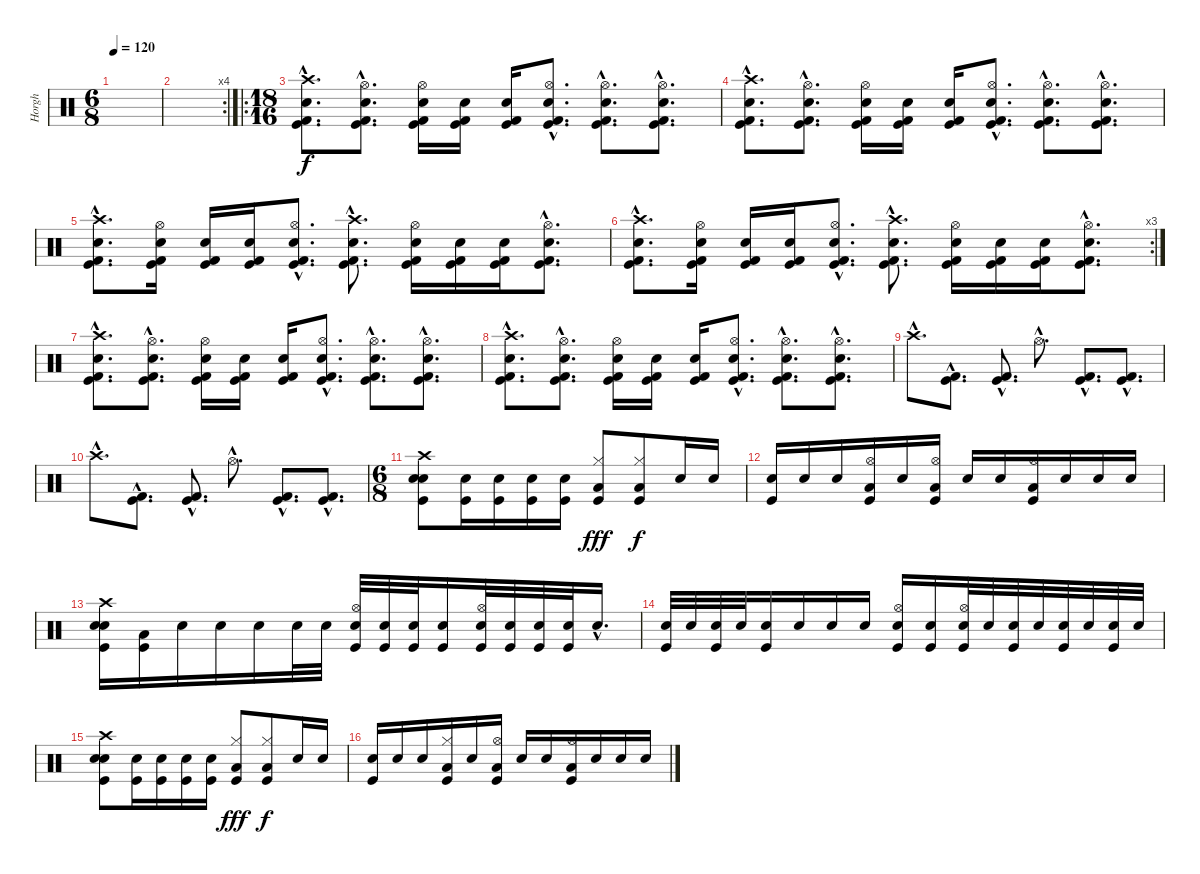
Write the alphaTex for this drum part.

\track ("Horgh" "Horgh") {instrument percussion}
\staff {score}
\articulation defaults
\ts (6 8)
\tempo 120
\clef neutral
\ks c
|
\rc 4
|
\ro
\ts (18 16)
("Crash high (hit)"{hac} "Snare (hit) 2"{hac} "Kick (hit) 2"{hac} "Kick (hit)"{hac}).8{d} ("Hi-Hat (open)"{hac} "Electric Snare (hit)"{hac} "Kick (hit) 2"{hac} "Kick (hit)"{hac}).8{d} ("Hi-Hat (open)" "Snare (hit) 2" "Kick (hit) 2" "Kick (hit)").16 ("Snare (hit) 2" "Kick (hit) 2" "Kick (hit)").16 ("Snare (hit) 2" "Kick (hit) 2" "Kick (hit)").16 ("Hi-Hat (open)"{hac} "Electric Snare (hit)"{hac} "Kick (hit) 2"{hac} "Kick (hit)"{hac}).8{d} ("Hi-Hat (open)"{hac} "Snare (hit) 2"{hac} "Kick (hit) 2"{hac} "Kick (hit)"{hac}).8{d} ("Hi-Hat (open)"{hac} "Electric Snare (hit)"{hac} "Kick (hit) 2"{hac} "Kick (hit)"{hac}).8{d} |
("Crash high (hit)"{hac} "Snare (hit) 2"{hac} "Kick (hit) 2"{hac} "Kick (hit)"{hac}).8{d} ("Hi-Hat (open)"{hac} "Electric Snare (hit)"{hac} "Kick (hit) 2"{hac} "Kick (hit)"{hac}).8{d} ("Hi-Hat (open)" "Snare (hit) 2" "Kick (hit) 2" "Kick (hit)").16 ("Snare (hit) 2" "Kick (hit) 2" "Kick (hit)").16 ("Snare (hit) 2" "Kick (hit) 2" "Kick (hit)").16 ("Hi-Hat (open)"{hac} "Electric Snare (hit)"{hac} "Kick (hit) 2"{hac} "Kick (hit)"{hac}).8{d} ("Hi-Hat (open)"{hac} "Snare (hit) 2"{hac} "Kick (hit) 2"{hac} "Kick (hit)"{hac}).8{d} ("Hi-Hat (open)"{hac} "Electric Snare (hit)"{hac} "Kick (hit) 2"{hac} "Kick (hit)"{hac}).8{d} |
("Crash high (hit)"{hac} "Electric Snare (hit)"{hac} "Kick (hit) 2"{hac} "Kick (hit)"{hac}).8{d} ("Hi-Hat (open)" "Snare (hit) 2" "Kick (hit) 2" "Kick (hit)").16 ("Snare (hit) 2" "Kick (hit) 2" "Kick (hit)").16 ("Snare (hit) 2" "Kick (hit) 2" "Kick (hit)").16 ("Hi-Hat (open)"{hac} "Electric Snare (hit)"{hac} "Kick (hit) 2"{hac} "Kick (hit)"{hac}).8{d} ("Crash high (hit)"{hac} "Electric Snare (hit)"{hac} "Kick (hit) 2"{hac} "Kick (hit)"{hac}).8{d} ("Hi-Hat (open)" "Snare (hit) 2" "Kick (hit) 2" "Kick (hit)").16 ("Snare (hit) 2" "Kick (hit) 2" "Kick (hit)").16 ("Snare (hit) 2" "Kick (hit) 2" "Kick (hit)").16 ("Hi-Hat (open)"{hac} "Electric Snare (hit)"{hac} "Kick (hit) 2"{hac} "Kick (hit)"{hac}).8{d} |
\rc 3
("Crash high (hit)"{hac} "Electric Snare (hit)"{hac} "Kick (hit) 2"{hac} "Kick (hit)"{hac}).8{d} ("Hi-Hat (open)" "Snare (hit) 2" "Kick (hit) 2" "Kick (hit)").16 ("Snare (hit) 2" "Kick (hit) 2" "Kick (hit)").16 ("Snare (hit) 2" "Kick (hit) 2" "Kick (hit)").16 ("Hi-Hat (open)"{hac} "Electric Snare (hit)"{hac} "Kick (hit) 2"{hac} "Kick (hit)"{hac}).8{d} ("Crash high (hit)"{hac} "Electric Snare (hit)"{hac} "Kick (hit) 2"{hac} "Kick (hit)"{hac}).8{d} ("Hi-Hat (open)" "Snare (hit) 2" "Kick (hit) 2" "Kick (hit)").16 ("Snare (hit) 2" "Kick (hit) 2" "Kick (hit)").16 ("Snare (hit) 2" "Kick (hit) 2" "Kick (hit)").16 ("Hi-Hat (open)"{hac} "Electric Snare (hit)"{hac} "Kick (hit) 2"{hac} "Kick (hit)"{hac}).8{d} |
("Crash high (hit)"{hac} "Snare (hit) 2"{hac} "Kick (hit) 2"{hac} "Kick (hit)"{hac}).8{d} ("Hi-Hat (open)"{hac} "Electric Snare (hit)"{hac} "Kick (hit) 2"{hac} "Kick (hit)"{hac}).8{d} ("Hi-Hat (open)" "Snare (hit) 2" "Kick (hit) 2" "Kick (hit)").16 ("Snare (hit) 2" "Kick (hit) 2" "Kick (hit)").16 ("Snare (hit) 2" "Kick (hit) 2" "Kick (hit)").16 ("Hi-Hat (open)"{hac} "Electric Snare (hit)"{hac} "Kick (hit) 2"{hac} "Kick (hit)"{hac}).8{d} ("Hi-Hat (open)"{hac} "Snare (hit) 2"{hac} "Kick (hit) 2"{hac} "Kick (hit)"{hac}).8{d} ("Hi-Hat (open)"{hac} "Electric Snare (hit)"{hac} "Kick (hit) 2"{hac} "Kick (hit)"{hac}).8{d} |
("Crash high (hit)"{hac} "Snare (hit) 2"{hac} "Kick (hit) 2"{hac} "Kick (hit)"{hac}).8{d} ("Hi-Hat (open)"{hac} "Electric Snare (hit)"{hac} "Kick (hit) 2"{hac} "Kick (hit)"{hac}).8{d} ("Hi-Hat (open)" "Snare (hit) 2" "Kick (hit) 2" "Kick (hit)").16 ("Snare (hit) 2" "Kick (hit) 2" "Kick (hit)").16 ("Snare (hit) 2" "Kick (hit) 2" "Kick (hit)").16 ("Hi-Hat (open)"{hac} "Electric Snare (hit)"{hac} "Kick (hit) 2"{hac} "Kick (hit)"{hac}).8{d} ("Hi-Hat (open)"{hac} "Snare (hit) 2"{hac} "Kick (hit) 2"{hac} "Kick (hit)"{hac}).8{d} ("Hi-Hat (open)"{hac} "Electric Snare (hit)"{hac} "Kick (hit) 2"{hac} "Kick (hit)"{hac}).8{d} |
"Crash high (hit)"{hac}.8{d} ("Kick (hit) 2"{hac} "Kick (hit)"{hac}).8{d} ("Kick (hit) 2"{hac} "Kick (hit)"{hac}).8{d} "Hi-Hat (open)"{hac}.8{d} ("Kick (hit) 2"{hac} "Kick (hit)"{hac}).8{d} ("Kick (hit) 2"{hac} "Kick (hit)"{hac}).8{d} |
"Crash high (hit)"{hac}.8{d} ("Kick (hit) 2"{hac} "Kick (hit)"{hac}).8{d} ("Kick (hit) 2"{hac} "Kick (hit)"{hac}).8{d} "Hi-Hat (open)"{hac}.8{d} ("Kick (hit) 2"{hac} "Kick (hit)"{hac}).8{d} ("Kick (hit) 2"{hac} "Kick (hit)"{hac}).8{d} |
\ts (6 8)
("Crash high (hit)" "Snare (hit) 2" "Electric Snare (hit)" "Kick (hit)").8 ("Electric Snare (hit)" "Kick (hit)").16 ("Electric Snare (hit)" "Kick (hit)").16 ("Electric Snare (hit)" "Kick (hit)").16 ("Electric Snare (hit)" "Kick (hit)").16 ("Hi-Hat (closed)" "Low Floor Tom (hit)" "Kick (hit)").8{dy fff} ("Hi-Hat (closed)" "Low Floor Tom (hit)" "Kick (hit)").8{dy f} "Electric Snare (hit)".16 "Electric Snare (hit)".16 |
("Electric Snare (hit)" "Kick (hit)").16 "Electric Snare (hit)".16 "Electric Snare (hit)".16 ("Hi-Hat (open)" "Low Floor Tom (hit)" "Kick (hit)").16 "Electric Snare (hit)".16 ("Hi-Hat (open)" "Low Floor Tom (hit)" "Kick (hit)").16 "Electric Snare (hit)".16 "Electric Snare (hit)".16 ("Hi-Hat (open)" "Low Floor Tom (hit)" "Kick (hit)").16 "Electric Snare (hit)".16 "Electric Snare (hit)".16 "Electric Snare (hit)".16 |
("Crash high (hit)" "Snare (hit) 2" "Electric Snare (hit)" "Kick (hit)").16 ("Low Floor Tom (hit)" "Kick (hit)").16 "Electric Snare (hit)".16 "Electric Snare (hit)".16 "Electric Snare (hit)".16 "Electric Snare (hit)".32 "Electric Snare (hit)".32 ("Hi-Hat (open)" "Electric Snare (hit)" "Kick (hit)").32 ("Electric Snare (hit)" "Kick (hit)").32 ("Electric Snare (hit)" "Kick (hit)").32 ("Electric Snare (hit)" "Kick (hit)").16 ("Hi-Hat (open)" "Electric Snare (hit)" "Kick (hit)").32 ("Electric Snare (hit)" "Kick (hit)").32 ("Electric Snare (hit)" "Kick (hit)").32 ("Electric Snare (hit)" "Kick (hit)").32 "Electric Snare (hit)"{hac}.16{d} |
("Electric Snare (hit)" "Kick (hit)").32 "Electric Snare (hit)".32 ("Electric Snare (hit)" "Kick (hit)").32 "Electric Snare (hit)".32 ("Electric Snare (hit)" "Kick (hit)").16 "Electric Snare (hit)".16 "Electric Snare (hit)".16 "Electric Snare (hit)".16 ("Hi-Hat (open)" "Electric Snare (hit)" "Kick (hit)").16 ("Electric Snare (hit)" "Kick (hit)").16 ("Hi-Hat (open)" "Electric Snare (hit)" "Kick (hit)").32 "Electric Snare (hit)".32 ("Electric Snare (hit)" "Kick (hit)").32 "Electric Snare (hit)".32 ("Electric Snare (hit)" "Kick (hit)").32 "Electric Snare (hit)".32 ("Electric Snare (hit)" "Kick (hit)").32 "Electric Snare (hit)".32 |
("Crash high (hit)" "Snare (hit) 2" "Electric Snare (hit)" "Kick (hit)").8 ("Electric Snare (hit)" "Kick (hit)").16 ("Electric Snare (hit)" "Kick (hit)").16 ("Electric Snare (hit)" "Kick (hit)").16 ("Electric Snare (hit)" "Kick (hit)").16 ("Hi-Hat (closed)" "Low Floor Tom (hit)" "Kick (hit)").8{dy fff} ("Hi-Hat (closed)" "Low Floor Tom (hit)" "Kick (hit)").8{dy f} "Electric Snare (hit)".16 "Electric Snare (hit)".16 |
("Electric Snare (hit)" "Kick (hit)").16 "Electric Snare (hit)".16 "Electric Snare (hit)".16 ("Hi-Hat (closed)" "Low Floor Tom (hit)" "Kick (hit)").16 "Electric Snare (hit)".16 ("Hi-Hat (open)" "Low Floor Tom (hit)" "Kick (hit)").16 "Electric Snare (hit)".16 "Electric Snare (hit)".16 ("Hi-Hat (open)" "Low Floor Tom (hit)" "Kick (hit)").16 "Electric Snare (hit)".16 "Electric Snare (hit)".16 "Electric Snare (hit)".16
